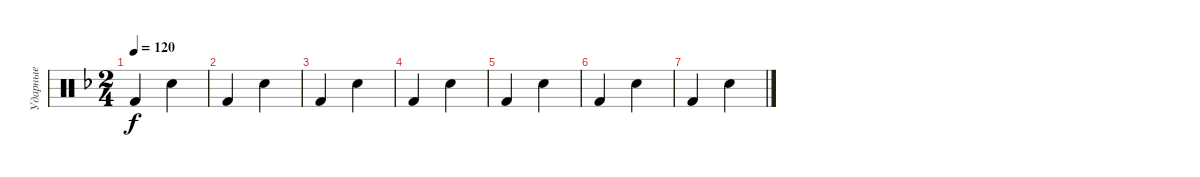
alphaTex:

\track ("Ударные" "Ударные") {instrument percussion}
\staff {score}
\articulation defaults
\ts (2 4)
\tempo 120
\clef neutral
\ks f "Kick (hit) 2".4{dy f} "Snare (hit) 2".4
|
"Kick (hit) 2".4 "Snare (hit) 2".4 |
"Kick (hit) 2".4 "Snare (hit) 2".4 |
"Kick (hit) 2".4 "Snare (hit) 2".4 |
"Kick (hit) 2".4 "Snare (hit) 2".4 |
"Kick (hit) 2".4 "Snare (hit) 2".4 |
"Kick (hit) 2".4 "Snare (hit) 2".4
